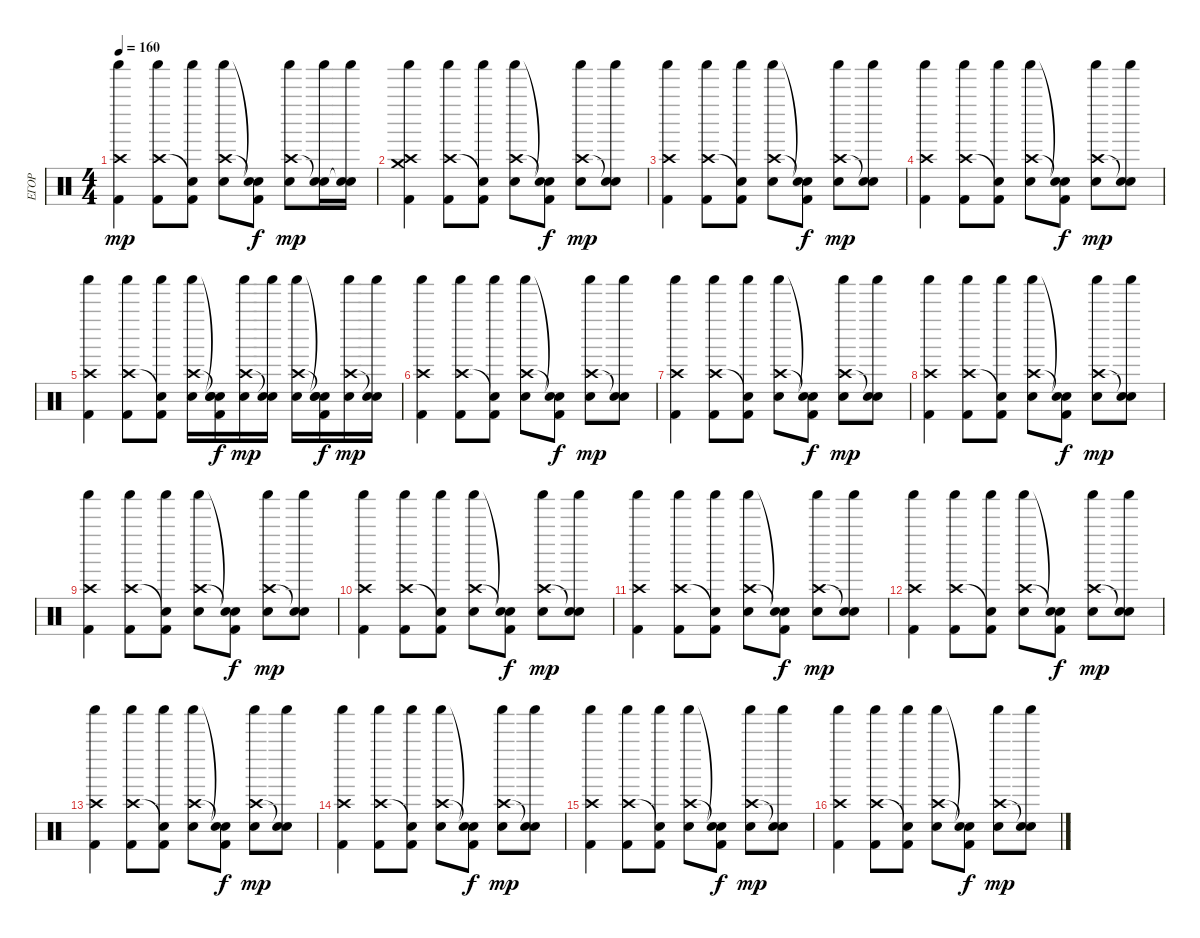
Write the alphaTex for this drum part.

\track ("ЕГОР" "ЕГОР") {instrument percussion}
\staff {score}
\articulation defaults
\ts (4 4)
\tempo 160
\clef neutral
\ks c
("Crash high (hit)" "Shaker (hit)" "Kick (hit) 2").4{dy mp} ("Crash high (hit)" "Shaker (hit)" "Kick (hit) 2").8 ("Snare (hit)"{t} "Shaker (hit)" "Kick (hit) 2").8 ("Crash high (hit)" "Shaker (hit)" "Electric Snare (hit)").8 ("Snare (hit)"{t} "Snare (hit)"{t} "Kick (hit) 2").8{dy f} ("Crash high (hit)" "Shaker (hit)" "Electric Snare (hit)").8{dy mp} ("Snare (hit)"{t} "Shaker (hit)" "Electric Snare (hit)").16 ("Snare (hit)"{t} "Shaker (hit)" "Electric Snare (hit)").16 |
("Crash high (hit)" "Shaker (hit)" "Crash medium (hit)" "Kick (hit) 2").4 ("Crash high (hit)" "Shaker (hit)" "Kick (hit) 2").8 ("Snare (hit)"{t} "Shaker (hit)" "Kick (hit) 2").8 ("Crash high (hit)" "Shaker (hit)" "Electric Snare (hit)").8 ("Snare (hit)"{t} "Snare (hit)"{t} "Kick (hit) 2").8{dy f} ("Crash high (hit)" "Shaker (hit)" "Electric Snare (hit)").8{dy mp} ("Snare (hit)"{t} "Shaker (hit)" "Electric Snare (hit)").8 |
("Crash high (hit)" "Shaker (hit)" "Kick (hit) 2").4 ("Crash high (hit)" "Shaker (hit)" "Kick (hit) 2").8 ("Snare (hit)"{t} "Shaker (hit)" "Kick (hit) 2").8 ("Crash high (hit)" "Shaker (hit)" "Electric Snare (hit)").8 ("Snare (hit)"{t} "Snare (hit)"{t} "Kick (hit) 2").8{dy f} ("Crash high (hit)" "Shaker (hit)" "Electric Snare (hit)").8{dy mp} ("Snare (hit)"{t} "Shaker (hit)" "Electric Snare (hit)").8 |
("Crash high (hit)" "Shaker (hit)" "Kick (hit) 2").4 ("Crash high (hit)" "Shaker (hit)" "Kick (hit) 2").8 ("Snare (hit)"{t} "Shaker (hit)" "Kick (hit) 2").8 ("Crash high (hit)" "Shaker (hit)" "Electric Snare (hit)").8 ("Snare (hit)"{t} "Snare (hit)"{t} "Kick (hit) 2").8{dy f} ("Crash high (hit)" "Shaker (hit)" "Electric Snare (hit)").8{dy mp} ("Snare (hit)"{t} "Shaker (hit)" "Electric Snare (hit)").8 |
("Crash high (hit)" "Shaker (hit)" "Kick (hit) 2").4 ("Crash high (hit)" "Shaker (hit)" "Kick (hit) 2").8 ("Snare (hit)"{t} "Shaker (hit)" "Kick (hit) 2").8 ("Crash high (hit)" "Shaker (hit)" "Electric Snare (hit)").16 ("Snare (hit)"{t} "Snare (hit)"{t} "Electric Snare (hit)" "Kick (hit) 2").16{dy f} ("Crash high (hit)" "Shaker (hit)" "Electric Snare (hit)").16{dy mp} ("Snare (hit)"{t} "Shaker (hit)" "Electric Snare (hit)").16 ("Crash high (hit)" "Shaker (hit)" "Electric Snare (hit)").16 ("Snare (hit)"{t} "Snare (hit)"{t} "Electric Snare (hit)" "Kick (hit) 2").16{dy f} ("Crash high (hit)" "Shaker (hit)" "Electric Snare (hit)").16{dy mp} ("Snare (hit)"{t} "Shaker (hit)" "Electric Snare (hit)").16 |
("Crash high (hit)" "Shaker (hit)" "Kick (hit) 2").4 ("Crash high (hit)" "Shaker (hit)" "Kick (hit) 2").8 ("Snare (hit)"{t} "Shaker (hit)" "Kick (hit) 2").8 ("Crash high (hit)" "Shaker (hit)" "Electric Snare (hit)").8 ("Snare (hit)"{t} "Snare (hit)"{t} "Kick (hit) 2").8{dy f} ("Crash high (hit)" "Shaker (hit)" "Electric Snare (hit)").8{dy mp} ("Snare (hit)"{t} "Shaker (hit)" "Electric Snare (hit)").8 |
("Crash high (hit)" "Shaker (hit)" "Kick (hit) 2").4 ("Crash high (hit)" "Shaker (hit)" "Kick (hit) 2").8 ("Snare (hit)"{t} "Shaker (hit)" "Kick (hit) 2").8 ("Crash high (hit)" "Shaker (hit)" "Electric Snare (hit)").8 ("Snare (hit)"{t} "Snare (hit)"{t} "Kick (hit) 2").8{dy f} ("Crash high (hit)" "Shaker (hit)" "Electric Snare (hit)").8{dy mp} ("Snare (hit)"{t} "Shaker (hit)" "Electric Snare (hit)").8 |
("Crash high (hit)" "Shaker (hit)" "Kick (hit) 2").4 ("Crash high (hit)" "Shaker (hit)" "Kick (hit) 2").8 ("Snare (hit)"{t} "Shaker (hit)" "Kick (hit) 2").8 ("Crash high (hit)" "Shaker (hit)" "Electric Snare (hit)").8 ("Snare (hit)"{t} "Snare (hit)"{t} "Kick (hit) 2").8{dy f} ("Crash high (hit)" "Shaker (hit)" "Electric Snare (hit)").8{dy mp} ("Snare (hit)"{t} "Shaker (hit)" "Electric Snare (hit)").8 |
("Crash high (hit)" "Shaker (hit)" "Kick (hit) 2").4 ("Crash high (hit)" "Shaker (hit)" "Kick (hit) 2").8 ("Snare (hit)"{t} "Shaker (hit)" "Kick (hit) 2").8 ("Crash high (hit)" "Shaker (hit)" "Electric Snare (hit)").8 ("Snare (hit)"{t} "Snare (hit)"{t} "Kick (hit) 2").8{dy f} ("Crash high (hit)" "Shaker (hit)" "Electric Snare (hit)").8{dy mp} ("Snare (hit)"{t} "Shaker (hit)" "Electric Snare (hit)").8 |
("Crash high (hit)" "Shaker (hit)" "Kick (hit) 2").4 ("Crash high (hit)" "Shaker (hit)" "Kick (hit) 2").8 ("Snare (hit)"{t} "Shaker (hit)" "Kick (hit) 2").8 ("Crash high (hit)" "Shaker (hit)" "Electric Snare (hit)").8 ("Snare (hit)"{t} "Snare (hit)"{t} "Kick (hit) 2").8{dy f} ("Crash high (hit)" "Shaker (hit)" "Electric Snare (hit)").8{dy mp} ("Snare (hit)"{t} "Shaker (hit)" "Electric Snare (hit)").8 |
("Crash high (hit)" "Shaker (hit)" "Kick (hit) 2").4 ("Crash high (hit)" "Shaker (hit)" "Kick (hit) 2").8 ("Snare (hit)"{t} "Shaker (hit)" "Kick (hit) 2").8 ("Crash high (hit)" "Shaker (hit)" "Electric Snare (hit)").8 ("Snare (hit)"{t} "Snare (hit)"{t} "Kick (hit) 2").8{dy f} ("Crash high (hit)" "Shaker (hit)" "Electric Snare (hit)").8{dy mp} ("Snare (hit)"{t} "Shaker (hit)" "Electric Snare (hit)").8 |
("Crash high (hit)" "Shaker (hit)" "Kick (hit) 2").4 ("Crash high (hit)" "Shaker (hit)" "Kick (hit) 2").8 ("Snare (hit)"{t} "Shaker (hit)" "Kick (hit) 2").8 ("Crash high (hit)" "Shaker (hit)" "Electric Snare (hit)").8 ("Snare (hit)"{t} "Snare (hit)"{t} "Kick (hit) 2").8{dy f} ("Crash high (hit)" "Shaker (hit)" "Electric Snare (hit)").8{dy mp} ("Snare (hit)"{t} "Shaker (hit)" "Electric Snare (hit)").8 |
("Crash high (hit)" "Shaker (hit)" "Kick (hit) 2").4 ("Crash high (hit)" "Shaker (hit)" "Kick (hit) 2").8 ("Snare (hit)"{t} "Shaker (hit)" "Kick (hit) 2").8 ("Crash high (hit)" "Shaker (hit)" "Electric Snare (hit)").8 ("Snare (hit)"{t} "Snare (hit)"{t} "Kick (hit) 2").8{dy f} ("Crash high (hit)" "Shaker (hit)" "Electric Snare (hit)").8{dy mp} ("Snare (hit)"{t} "Shaker (hit)" "Electric Snare (hit)").8 |
("Crash high (hit)" "Shaker (hit)" "Kick (hit) 2").4 ("Crash high (hit)" "Shaker (hit)" "Kick (hit) 2").8 ("Snare (hit)"{t} "Shaker (hit)" "Kick (hit) 2").8 ("Crash high (hit)" "Shaker (hit)" "Electric Snare (hit)").8 ("Snare (hit)"{t} "Snare (hit)"{t} "Kick (hit) 2").8{dy f} ("Crash high (hit)" "Shaker (hit)" "Electric Snare (hit)").8{dy mp} ("Snare (hit)"{t} "Shaker (hit)" "Electric Snare (hit)").8 |
("Crash high (hit)" "Shaker (hit)" "Kick (hit) 2").4 ("Crash high (hit)" "Shaker (hit)" "Kick (hit) 2").8 ("Snare (hit)"{t} "Shaker (hit)" "Kick (hit) 2").8 ("Crash high (hit)" "Shaker (hit)" "Electric Snare (hit)").8 ("Snare (hit)"{t} "Snare (hit)"{t} "Kick (hit) 2").8{dy f} ("Crash high (hit)" "Shaker (hit)" "Electric Snare (hit)").8{dy mp} ("Snare (hit)"{t} "Shaker (hit)" "Electric Snare (hit)").8 |
("Crash high (hit)" "Shaker (hit)" "Kick (hit) 2").4 ("Crash high (hit)" "Shaker (hit)" "Kick (hit) 2").8 ("Snare (hit)"{t} "Shaker (hit)" "Kick (hit) 2").8 ("Crash high (hit)" "Shaker (hit)" "Electric Snare (hit)").8 ("Snare (hit)"{t} "Snare (hit)"{t} "Kick (hit) 2").8{dy f} ("Crash high (hit)" "Shaker (hit)" "Electric Snare (hit)").8{dy mp} ("Snare (hit)"{t} "Shaker (hit)" "Electric Snare (hit)").8
